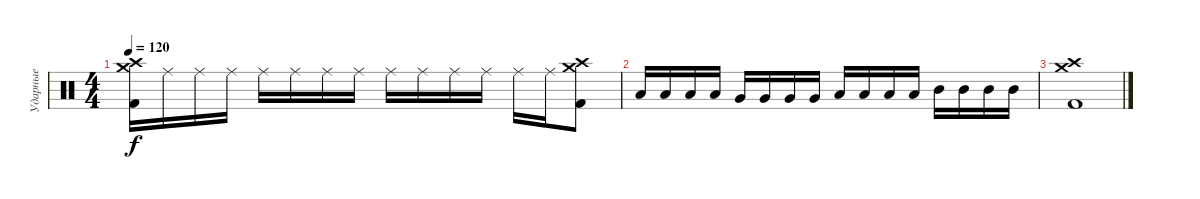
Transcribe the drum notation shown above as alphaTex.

\track ("Ударные" "Ударные") {instrument percussion}
\staff {score}
\articulation defaults
\ts (4 4)
\tempo 120
\clef neutral
\ks c
("Kick (hit) 2" "Crash medium (hit)" "Crash high (hit)").16{dy f} "Ride (middle)".16 "Ride (middle)".16 "Ride (middle)".16 "Ride (middle)".16 "Ride (middle)".16 "Ride (middle)".16 "Ride (middle)".16 "Ride (middle)".16 "Ride (middle)".16 "Ride (middle)".16 "Ride (middle)".16 "Ride (middle)".16 "Ride (middle)".16 ("Kick (hit) 2" "Crash medium (hit)" "Crash high (hit)").8 |
"Low Floor Tom (hit)".16 "Low Floor Tom (hit)".16 "Low Floor Tom (hit)".16 "Low Floor Tom (hit)".16 "Very Low Tom (hit)".16 "Very Low Tom (hit)".16 "Very Low Tom (hit)".16 "Very Low Tom (hit)".16 "Low Tom (hit)".16 "Low Tom (hit)".16 "Low Tom (hit)".16 "Low Tom (hit)".16 "Mid Tom (hit)".16 "Mid Tom (hit)".16 "Mid Tom (hit)".16 "Mid Tom (hit)".16 |
("Kick (hit) 2" "Crash medium (hit)" "Crash high (hit)").1
